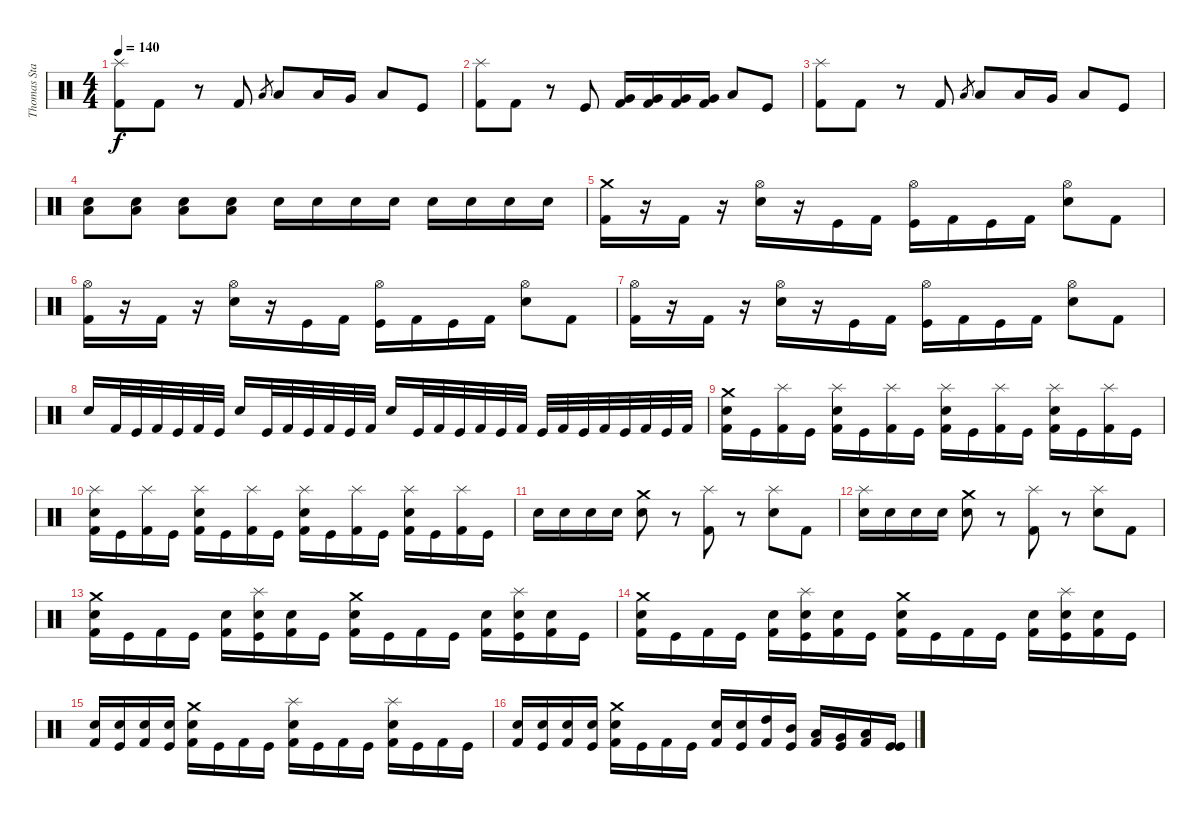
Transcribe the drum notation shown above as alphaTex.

\track ("Thomas Stauch" "Thomas Sta") {instrument percussion}
\staff {score}
\articulation defaults
\ts (4 4)
\tempo 140
\clef neutral
\ks c
("Splash (hit)" "Kick (hit) 2").8{dy f} "Kick (hit) 2".8 r.8 "Kick (hit) 2".8 "Low Tom (hit)".8{gr} "Low Tom (hit)".8 "Low Tom (hit)".16 "Very Low Tom (hit)".16 "Low Floor Tom (hit)".8 "Kick (hit)".8 |
("Splash (hit)" "Kick (hit) 2").8 "Kick (hit) 2".8 r.8 "Kick (hit)".8 ("Very Low Tom (hit)" "Kick (hit) 2").16 ("Very Low Tom (hit)" "Kick (hit) 2").16 ("Very Low Tom (hit)" "Kick (hit) 2").16 ("Very Low Tom (hit)" "Kick (hit) 2").16 "Low Floor Tom (hit)".8 "Kick (hit)".8 |
("Splash (hit)" "Kick (hit) 2").8 "Kick (hit) 2".8 r.8 "Kick (hit) 2".8 "Low Tom (hit)".8{gr} "Low Tom (hit)".8 "Low Tom (hit)".16 "Very Low Tom (hit)".16 "Low Floor Tom (hit)".8 "Kick (hit)".8 |
("Electric Snare (hit)" "Low Floor Tom (hit)").8 ("Electric Snare (hit)" "Low Floor Tom (hit)").8 ("Electric Snare (hit)" "Low Floor Tom (hit)").8 ("Electric Snare (hit)" "Low Floor Tom (hit)").8 "Electric Snare (hit)".16 "Electric Snare (hit)".16 "Electric Snare (hit)".16 "Electric Snare (hit)".16 "Electric Snare (hit)".16 "Electric Snare (hit)".16 "Electric Snare (hit)".16 "Electric Snare (hit)".16 |
("Crash medium (hit)" "Kick (hit) 2").16 r.16 "Kick (hit) 2".16 r.16 ("Hi-Hat (open)" "Electric Snare (hit)").16 r.16 "Kick (hit)".16 "Kick (hit) 2".16 ("Hi-Hat (open)" "Kick (hit)").16 "Kick (hit) 2".16 "Kick (hit)".16 "Kick (hit) 2".16 ("Hi-Hat (open)" "Electric Snare (hit)").8 "Kick (hit) 2".8 |
("Hi-Hat (open)" "Kick (hit) 2").16 r.16 "Kick (hit) 2".16 r.16 ("Hi-Hat (open)" "Electric Snare (hit)").16 r.16 "Kick (hit)".16 "Kick (hit) 2".16 ("Hi-Hat (open)" "Kick (hit)").16 "Kick (hit) 2".16 "Kick (hit)".16 "Kick (hit) 2".16 ("Hi-Hat (open)" "Electric Snare (hit)").8 "Kick (hit) 2".8 |
("Hi-Hat (open)" "Kick (hit) 2").16 r.16 "Kick (hit) 2".16 r.16 ("Hi-Hat (open)" "Electric Snare (hit)").16 r.16 "Kick (hit)".16 "Kick (hit) 2".16 ("Hi-Hat (open)" "Kick (hit)").16 "Kick (hit) 2".16 "Kick (hit)".16 "Kick (hit) 2".16 ("Hi-Hat (open)" "Electric Snare (hit)").8 "Kick (hit) 2".8 |
"Electric Snare (hit)".16 "Kick (hit) 2".32 "Kick (hit)".32 "Kick (hit) 2".32 "Kick (hit)".32 "Kick (hit) 2".32 "Kick (hit)".32 "Electric Snare (hit)".16 "Kick (hit)".32 "Kick (hit) 2".32 "Kick (hit)".32 "Kick (hit) 2".32 "Kick (hit)".32 "Kick (hit) 2".32 "Electric Snare (hit)".16 "Kick (hit)".32 "Kick (hit) 2".32 "Kick (hit)".32 "Kick (hit) 2".32 "Kick (hit)".32 "Kick (hit) 2".32 "Kick (hit)".32 "Kick (hit) 2".32 "Kick (hit)".32 "Kick (hit) 2".32 "Kick (hit)".32 "Kick (hit) 2".32 "Kick (hit)".32 "Kick (hit) 2".32 |
("Crash medium (hit)" "Electric Snare (hit)" "Kick (hit) 2").16 "Kick (hit)".16 ("Splash (hit)" "Kick (hit) 2").16 "Kick (hit)".16 ("Splash (hit)" "Electric Snare (hit)" "Kick (hit) 2").16 "Kick (hit)".16 ("Splash (hit)" "Kick (hit) 2").16 "Kick (hit)".16 ("Splash (hit)" "Electric Snare (hit)" "Kick (hit) 2").16 "Kick (hit)".16 ("Splash (hit)" "Kick (hit) 2").16 "Kick (hit)".16 ("Splash (hit)" "Electric Snare (hit)" "Kick (hit) 2").16 "Kick (hit)".16 ("Splash (hit)" "Kick (hit) 2").16 "Kick (hit)".16 |
("Splash (hit)" "Electric Snare (hit)" "Kick (hit) 2").16 "Kick (hit)".16 ("Splash (hit)" "Kick (hit) 2").16 "Kick (hit)".16 ("Splash (hit)" "Electric Snare (hit)" "Kick (hit) 2").16 "Kick (hit)".16 ("Splash (hit)" "Kick (hit) 2").16 "Kick (hit)".16 ("Splash (hit)" "Electric Snare (hit)" "Kick (hit) 2").16 "Kick (hit)".16 ("Splash (hit)" "Kick (hit) 2").16 "Kick (hit)".16 ("Splash (hit)" "Electric Snare (hit)" "Kick (hit) 2").16 "Kick (hit)".16 ("Splash (hit)" "Kick (hit) 2").16 "Kick (hit)".16 |
"Electric Snare (hit)".16 "Electric Snare (hit)".16 "Electric Snare (hit)".16 "Electric Snare (hit)".16 ("Crash medium (hit)" "Electric Snare (hit)").8 r.8 ("Splash (hit)" "Kick (hit) 2").8 r.8 ("Splash (hit)" "Electric Snare (hit)").8 "Kick (hit) 2".8 |
("Splash (hit)" "Electric Snare (hit)").16 "Electric Snare (hit)".16 "Electric Snare (hit)".16 "Electric Snare (hit)".16 ("Crash medium (hit)" "Electric Snare (hit)").8 r.8 ("Splash (hit)" "Kick (hit) 2").8 r.8 ("Splash (hit)" "Electric Snare (hit)").8 "Kick (hit) 2".8 |
("Crash medium (hit)" "Electric Snare (hit)" "Kick (hit) 2").16 "Kick (hit)".16 "Kick (hit) 2".16 "Kick (hit)".16 ("Electric Snare (hit)" "Kick (hit) 2").16 ("Splash (hit)" "Electric Snare (hit)" "Kick (hit)").16 ("Electric Snare (hit)" "Kick (hit) 2").16 "Kick (hit)".16 ("Crash medium (hit)" "Electric Snare (hit)" "Kick (hit) 2").16 "Kick (hit)".16 "Kick (hit) 2".16 "Kick (hit)".16 ("Electric Snare (hit)" "Kick (hit) 2").16 ("Splash (hit)" "Electric Snare (hit)" "Kick (hit)").16 ("Electric Snare (hit)" "Kick (hit) 2").16 "Kick (hit)".16 |
("Crash medium (hit)" "Electric Snare (hit)" "Kick (hit) 2").16 "Kick (hit)".16 "Kick (hit) 2".16 "Kick (hit)".16 ("Electric Snare (hit)" "Kick (hit) 2").16 ("Splash (hit)" "Electric Snare (hit)" "Kick (hit)").16 ("Electric Snare (hit)" "Kick (hit) 2").16 "Kick (hit)".16 ("Crash medium (hit)" "Electric Snare (hit)" "Kick (hit) 2").16 "Kick (hit)".16 "Kick (hit) 2".16 "Kick (hit)".16 ("Electric Snare (hit)" "Kick (hit) 2").16 ("Splash (hit)" "Electric Snare (hit)" "Kick (hit)").16 ("Electric Snare (hit)" "Kick (hit) 2").16 "Kick (hit)".16 |
("Electric Snare (hit)" "Kick (hit) 2").16 ("Electric Snare (hit)" "Kick (hit)").16 ("Electric Snare (hit)" "Kick (hit) 2").16 ("Electric Snare (hit)" "Kick (hit)").16 ("Crash medium (hit)" "Electric Snare (hit)" "Kick (hit) 2").16 "Kick (hit)".16 "Kick (hit) 2".16 "Kick (hit)".16 ("Splash (hit)" "Electric Snare (hit)" "Kick (hit) 2").16 "Kick (hit)".16 "Kick (hit) 2".16 "Kick (hit)".16 ("Splash (hit)" "Electric Snare (hit)" "Kick (hit) 2").16 "Kick (hit)".16 "Kick (hit) 2".16 "Kick (hit)".16 |
("Electric Snare (hit)" "Kick (hit) 2").16 ("Electric Snare (hit)" "Kick (hit)").16 ("Electric Snare (hit)" "Kick (hit) 2").16 ("Electric Snare (hit)" "Kick (hit)").16 ("Crash medium (hit)" "Electric Snare (hit)" "Kick (hit) 2").16 "Kick (hit)".16 "Kick (hit) 2".16 "Kick (hit)".16 ("Electric Snare (hit)" "Kick (hit) 2").16 ("Electric Snare (hit)" "Kick (hit)").16 ("High Tom (hit)" "Kick (hit) 2").16 ("Mid Tom (hit)" "Kick (hit)").16 ("Low Tom (hit)" "Kick (hit) 2").16 ("Very Low Tom (hit)" "Kick (hit)").16 ("Low Floor Tom (hit)" "Kick (hit) 2").16 ("Kick (hit)" "Kick (hit)").16
